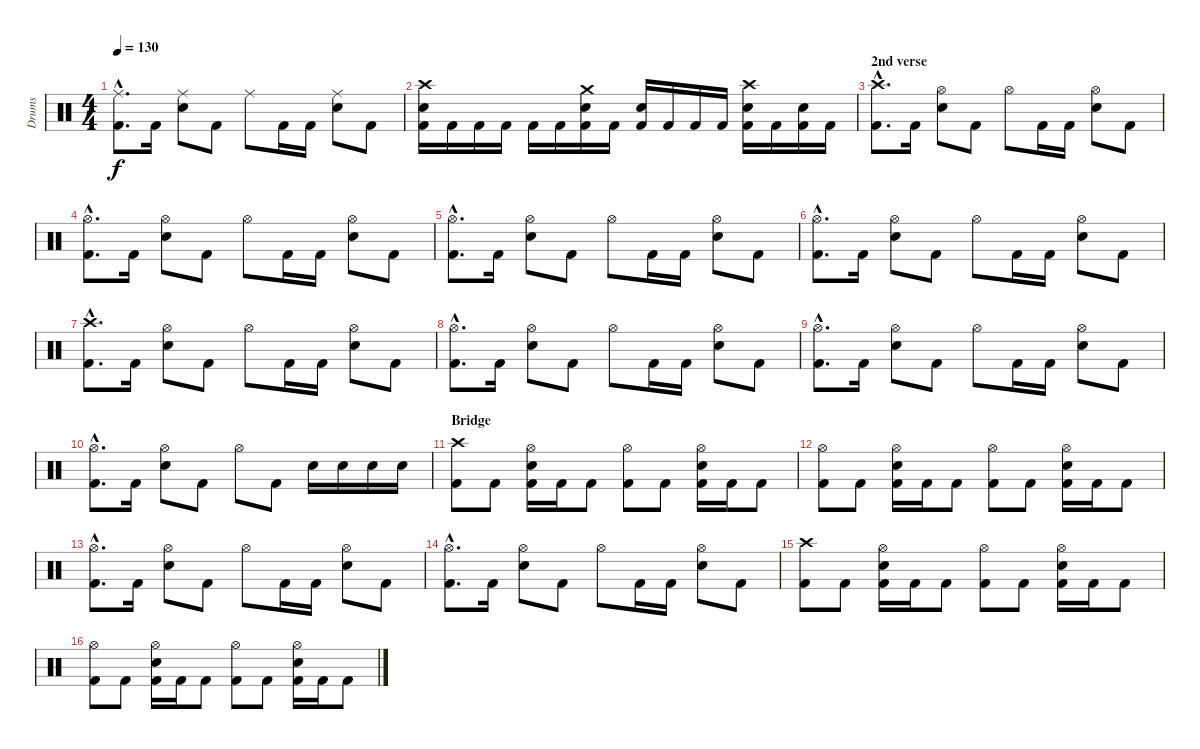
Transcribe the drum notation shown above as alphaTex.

\track ("Drums" "Drums") {instrument percussion}
\staff {score}
\articulation defaults
\ts (4 4)
\tempo 130
\clef neutral
\ks c
("Ride (middle)"{hac} "Kick (hit) 2"{hac}).8{d dy f} "Kick (hit) 2".16 ("Ride (middle)" "Snare (hit) 2").8 "Kick (hit) 2".8 "Ride (middle)".8 "Kick (hit) 2".16 "Kick (hit) 2".16 ("Ride (middle)" "Snare (hit) 2").8 "Kick (hit) 2".8 |
("Crash high (hit)" "Snare (hit) 2" "Kick (hit) 2").16 "Kick (hit) 2".16 "Kick (hit) 2".16 "Kick (hit) 2".16 "Kick (hit) 2".16 "Kick (hit) 2".16 ("Crash medium (hit)" "Snare (hit) 2" "Kick (hit) 2").16 "Kick (hit) 2".16 ("Snare (hit) 2" "Kick (hit) 2").16 "Kick (hit) 2".16 "Kick (hit) 2".16 "Kick (hit) 2".16 ("Crash high (hit)" "Snare (hit) 2" "Kick (hit) 2").16 "Kick (hit) 2".16 ("Snare (hit) 2" "Kick (hit) 2").16 "Kick (hit) 2".16 |
\section ("" "2nd verse")
("Crash high (hit)"{hac} "Kick (hit) 2"{hac}).8{d} "Kick (hit) 2".16 ("Hi-Hat (open)" "Snare (hit) 2").8 "Kick (hit) 2".8 "Hi-Hat (open)".8 "Kick (hit) 2".16 "Kick (hit) 2".16 ("Hi-Hat (open)" "Snare (hit) 2").8 "Kick (hit) 2".8 |
("Hi-Hat (open)"{hac} "Kick (hit) 2"{hac}).8{d} "Kick (hit) 2".16 ("Hi-Hat (open)" "Snare (hit) 2").8 "Kick (hit) 2".8 "Hi-Hat (open)".8 "Kick (hit) 2".16 "Kick (hit) 2".16 ("Hi-Hat (open)" "Snare (hit) 2").8 "Kick (hit) 2".8 |
("Hi-Hat (open)"{hac} "Kick (hit) 2"{hac}).8{d} "Kick (hit) 2".16 ("Hi-Hat (open)" "Snare (hit) 2").8 "Kick (hit) 2".8 "Hi-Hat (open)".8 "Kick (hit) 2".16 "Kick (hit) 2".16 ("Hi-Hat (open)" "Snare (hit) 2").8 "Kick (hit) 2".8 |
("Hi-Hat (open)"{hac} "Kick (hit) 2"{hac}).8{d} "Kick (hit) 2".16 ("Hi-Hat (open)" "Snare (hit) 2").8 "Kick (hit) 2".8 "Hi-Hat (open)".8 "Kick (hit) 2".16 "Kick (hit) 2".16 ("Hi-Hat (open)" "Snare (hit) 2").8 "Kick (hit) 2".8 |
("Crash high (hit)"{hac} "Kick (hit) 2"{hac}).8{d} "Kick (hit) 2".16 ("Hi-Hat (open)" "Snare (hit) 2").8 "Kick (hit) 2".8 "Hi-Hat (open)".8 "Kick (hit) 2".16 "Kick (hit) 2".16 ("Hi-Hat (open)" "Snare (hit) 2").8 "Kick (hit) 2".8 |
("Hi-Hat (open)"{hac} "Kick (hit) 2"{hac}).8{d} "Kick (hit) 2".16 ("Hi-Hat (open)" "Snare (hit) 2").8 "Kick (hit) 2".8 "Hi-Hat (open)".8 "Kick (hit) 2".16 "Kick (hit) 2".16 ("Hi-Hat (open)" "Snare (hit) 2").8 "Kick (hit) 2".8 |
("Hi-Hat (open)"{hac} "Kick (hit) 2"{hac}).8{d} "Kick (hit) 2".16 ("Hi-Hat (open)" "Snare (hit) 2").8 "Kick (hit) 2".8 "Hi-Hat (open)".8 "Kick (hit) 2".16 "Kick (hit) 2".16 ("Hi-Hat (open)" "Snare (hit) 2").8 "Kick (hit) 2".8 |
("Hi-Hat (open)"{hac} "Kick (hit) 2"{hac}).8{d} "Kick (hit) 2".16 ("Hi-Hat (open)" "Snare (hit) 2").8 "Kick (hit) 2".8 "Hi-Hat (open)".8 "Kick (hit) 2".8 "Snare (hit) 2".16 "Snare (hit) 2".16 "Snare (hit) 2".16 "Snare (hit) 2".16 |
\section ("" "Bridge")
("Crash high (hit)" "Kick (hit) 2").8 "Kick (hit) 2".8 ("Hi-Hat (open)" "Snare (hit) 2" "Kick (hit) 2").16 "Kick (hit) 2".16 "Kick (hit) 2".8 ("Hi-Hat (open)" "Kick (hit) 2").8 "Kick (hit) 2".8 ("Hi-Hat (open)" "Snare (hit) 2" "Kick (hit) 2").16 "Kick (hit) 2".16 "Kick (hit) 2".8 |
("Hi-Hat (open)" "Kick (hit) 2").8 "Kick (hit) 2".8 ("Hi-Hat (open)" "Snare (hit) 2" "Kick (hit) 2").16 "Kick (hit) 2".16 "Kick (hit) 2".8 ("Hi-Hat (open)" "Kick (hit) 2").8 "Kick (hit) 2".8 ("Hi-Hat (open)" "Snare (hit) 2" "Kick (hit) 2").16 "Kick (hit) 2".16 "Kick (hit) 2".8 |
("Hi-Hat (open)"{hac} "Kick (hit) 2"{hac}).8{d} "Kick (hit) 2".16 ("Hi-Hat (open)" "Snare (hit) 2").8 "Kick (hit) 2".8 "Hi-Hat (open)".8 "Kick (hit) 2".16 "Kick (hit) 2".16 ("Hi-Hat (open)" "Snare (hit) 2").8 "Kick (hit) 2".8 |
("Hi-Hat (open)"{hac} "Kick (hit) 2"{hac}).8{d} "Kick (hit) 2".16 ("Hi-Hat (open)" "Snare (hit) 2").8 "Kick (hit) 2".8 "Hi-Hat (open)".8 "Kick (hit) 2".16 "Kick (hit) 2".16 ("Hi-Hat (open)" "Snare (hit) 2").8 "Kick (hit) 2".8 |
("Crash high (hit)" "Kick (hit) 2").8 "Kick (hit) 2".8 ("Hi-Hat (open)" "Snare (hit) 2" "Kick (hit) 2").16 "Kick (hit) 2".16 "Kick (hit) 2".8 ("Hi-Hat (open)" "Kick (hit) 2").8 "Kick (hit) 2".8 ("Hi-Hat (open)" "Snare (hit) 2" "Kick (hit) 2").16 "Kick (hit) 2".16 "Kick (hit) 2".8 |
("Hi-Hat (open)" "Kick (hit) 2").8 "Kick (hit) 2".8 ("Hi-Hat (open)" "Snare (hit) 2" "Kick (hit) 2").16 "Kick (hit) 2".16 "Kick (hit) 2".8 ("Hi-Hat (open)" "Kick (hit) 2").8 "Kick (hit) 2".8 ("Hi-Hat (open)" "Snare (hit) 2" "Kick (hit) 2").16 "Kick (hit) 2".16 "Kick (hit) 2".8
